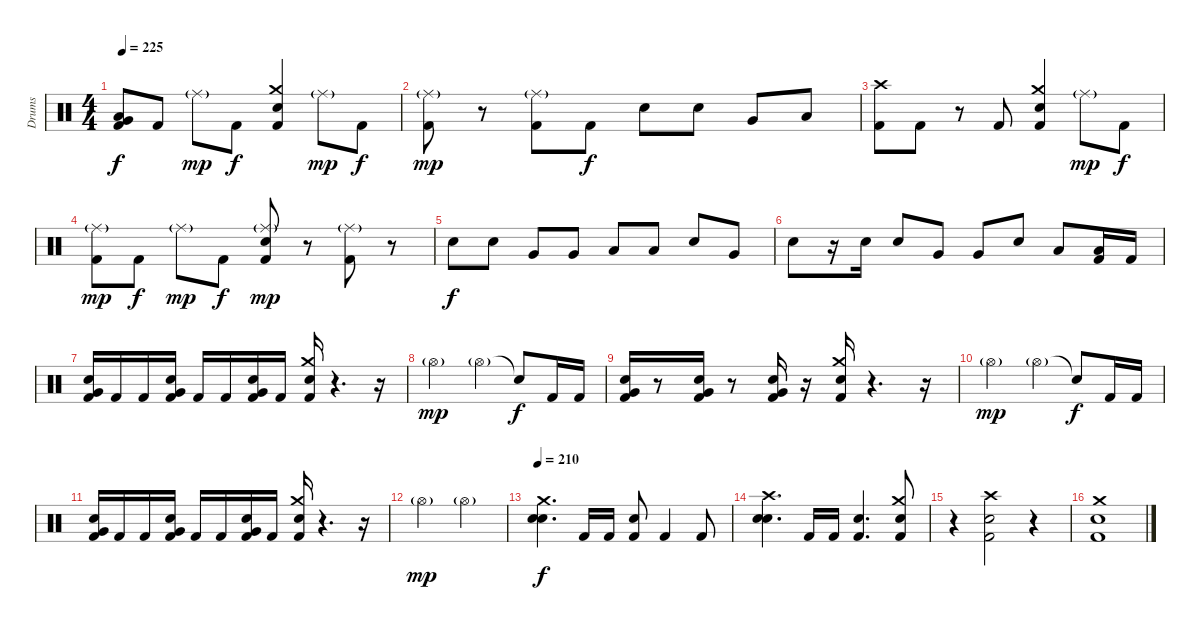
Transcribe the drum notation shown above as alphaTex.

\track ("Drums" "Drums") {instrument percussion}
\staff {score}
\articulation defaults
\ts (4 4)
\tempo 225
\clef neutral
\ks c
("Very Low Tom (hit)" "Low Floor Tom (hit)" "Kick (hit) 2").8{dy f} "Kick (hit) 2".8 "Ride (middle)"{g}.8{dy mp} "Kick (hit) 2".8{dy f} ("Crash medium (hit)" "Snare (hit) 2" "Kick (hit) 2").4 "Ride (middle)"{g}.8{dy mp} "Kick (hit) 2".8{dy f} |
("Ride (middle)"{g} "Kick (hit) 2").8{dy mp} r.8 ("Ride (middle)"{g} "Kick (hit) 2").8 "Kick (hit) 2".8{dy f} "Snare (hit) 2".8 "Snare (hit) 2".8 "Very Low Tom (hit)".8 "Low Floor Tom (hit)".8 |
("Crash high (hit)" "Kick (hit) 2").8 "Kick (hit) 2".8 r.8 "Kick (hit) 2".8 ("Crash medium (hit)" "Snare (hit) 2" "Kick (hit) 2").4 "Ride (middle)"{g}.8{dy mp} "Kick (hit) 2".8{dy f} |
("Ride (middle)"{g} "Kick (hit) 2").8{dy mp} "Kick (hit) 2".8{dy f} "Ride (middle)"{g}.8{dy mp} "Kick (hit) 2".8{dy f} ("Snare (hit) 2" "Ride (middle)"{g} "Kick (hit) 2").8{dy mp} r.8 ("Ride (middle)"{g} "Kick (hit) 2").8 r.8 |
"Snare (hit) 2".8{dy f} "Snare (hit) 2".8 "Very Low Tom (hit)".8 "Very Low Tom (hit)".8 "Low Floor Tom (hit)".8 "Low Floor Tom (hit)".8 "Snare (hit) 2".8 "Very Low Tom (hit)".8 |
"Snare (hit) 2".8 r.16 "Snare (hit) 2".16 "Snare (hit) 2".8 "Very Low Tom (hit)".8 "Very Low Tom (hit)".8 "Snare (hit) 2".8 "Low Floor Tom (hit)".8 ("Low Floor Tom (hit)" "Kick (hit) 2").16 "Kick (hit) 2".16 |
("Very Low Tom (hit)" "Snare (hit) 2" "Kick (hit) 2").16 "Kick (hit) 2".16 "Kick (hit) 2".16 ("Very Low Tom (hit)" "Snare (hit) 2" "Kick (hit) 2").16 "Kick (hit) 2".16 "Kick (hit) 2".16 ("Very Low Tom (hit)" "Snare (hit) 2" "Kick (hit) 2").16 "Kick (hit) 2".16 ("Crash medium (hit)" "Snare (hit) 2" "Kick (hit) 2").16 r.4{d} r.16 |
"Hi-Hat (open)"{g}.2{dy mp} "Hi-Hat (open)"{g}.4 "Snare (hit)"{t}.8{dy f} "Kick (hit) 2".16 "Kick (hit) 2".16 |
("Very Low Tom (hit)" "Snare (hit) 2" "Kick (hit) 2").16 r.8 ("Very Low Tom (hit)" "Snare (hit) 2" "Kick (hit) 2").16 r.8 ("Very Low Tom (hit)" "Snare (hit) 2" "Kick (hit) 2").16 r.16 ("Crash medium (hit)" "Snare (hit) 2" "Kick (hit) 2").16 r.4{d} r.16 |
"Hi-Hat (open)"{g}.2{dy mp} "Hi-Hat (open)"{g}.4 "Snare (hit)"{t}.8{dy f} "Kick (hit) 2".16 "Kick (hit) 2".16 |
("Very Low Tom (hit)" "Snare (hit) 2" "Kick (hit) 2").16 "Kick (hit) 2".16 "Kick (hit) 2".16 ("Very Low Tom (hit)" "Snare (hit) 2" "Kick (hit) 2").16 "Kick (hit) 2".16 "Kick (hit) 2".16 ("Very Low Tom (hit)" "Snare (hit) 2" "Kick (hit) 2").16 "Kick (hit) 2".16 ("Crash medium (hit)" "Snare (hit) 2" "Kick (hit) 2").16 r.4{d} r.16 |
"Hi-Hat (open)"{g}.2{dy mp} "Hi-Hat (open)"{g}.2 |
\tempo 210
("Crash medium (hit)" "Snare (hit) 2" "Snare (hit) 2").4{d dy f} "Kick (hit) 2".16 "Kick (hit) 2".16 ("Snare (hit) 2" "Kick (hit) 2").8 "Kick (hit) 2".4 "Kick (hit) 2".8 |
("Crash high (hit)" "Snare (hit) 2" "Snare (hit) 2").4{d} "Kick (hit) 2".16 "Kick (hit) 2".16 ("Snare (hit) 2" "Kick (hit) 2").4{d} ("Crash medium (hit)" "Snare (hit) 2" "Kick (hit) 2").8 |
r.4 ("Crash high (hit)" "Snare (hit) 2" "Kick (hit) 2").2 r.4 |
("Crash medium (hit)" "Snare (hit) 2" "Kick (hit) 2").1
